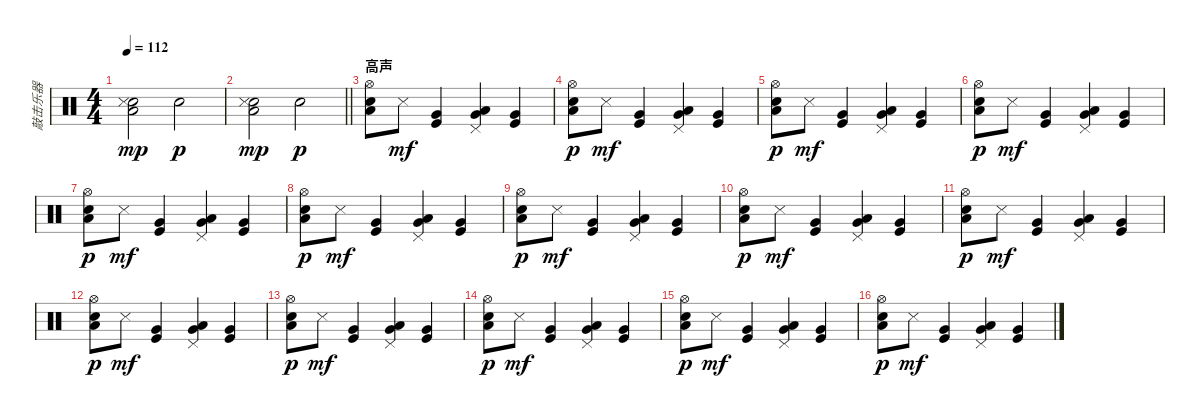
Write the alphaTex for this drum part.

\track ("敲击乐器" "敲击乐器") {instrument percussion}
\staff {score}
\articulation defaults
\ts (4 4)
\tempo 112
\clef neutral
\ks c
("Snare (hit) 2" "Snare (side stick) 3" "Low Floor Tom (hit)").2{dy mp} "Electric Snare (hit)".2{dy p} |
\barLineRight lightlight
("Snare (hit) 2" "Snare (side stick) 3" "Low Floor Tom (hit)").2{dy mp} "Electric Snare (hit)".2{dy p} |
\section ("" "高声")
("Low Floor Tom (hit)" "Snare (hit) 2" "Hi-Hat (open)").8 "Metronome (hit)".8{dy mf} ("Kick (hit)" "Very Low Tom (hit)").4 ("Very Low Tom (hit)" "Pedal Hi-Hat (hit)" "Low Tom (hit)").4 ("Kick (hit)" "Very Low Tom (hit)").4 |
("Low Floor Tom (hit)" "Snare (hit) 2" "Hi-Hat (open)").8{dy p} "Metronome (hit)".8{dy mf} ("Kick (hit)" "Very Low Tom (hit)").4 ("Very Low Tom (hit)" "Pedal Hi-Hat (hit)" "Low Tom (hit)").4 ("Kick (hit)" "Very Low Tom (hit)").4 |
("Low Floor Tom (hit)" "Snare (hit) 2" "Hi-Hat (open)").8{dy p} "Metronome (hit)".8{dy mf} ("Kick (hit)" "Very Low Tom (hit)").4 ("Very Low Tom (hit)" "Pedal Hi-Hat (hit)" "Low Tom (hit)").4 ("Kick (hit)" "Very Low Tom (hit)").4 |
("Low Floor Tom (hit)" "Snare (hit) 2" "Hi-Hat (open)").8{dy p} "Metronome (hit)".8{dy mf} ("Kick (hit)" "Very Low Tom (hit)").4 ("Very Low Tom (hit)" "Pedal Hi-Hat (hit)" "Low Tom (hit)").4 ("Kick (hit)" "Very Low Tom (hit)").4 |
("Low Floor Tom (hit)" "Snare (hit) 2" "Hi-Hat (open)").8{dy p} "Metronome (hit)".8{dy mf} ("Kick (hit)" "Very Low Tom (hit)").4 ("Very Low Tom (hit)" "Pedal Hi-Hat (hit)" "Low Tom (hit)").4 ("Kick (hit)" "Very Low Tom (hit)").4 |
("Low Floor Tom (hit)" "Snare (hit) 2" "Hi-Hat (open)").8{dy p} "Metronome (hit)".8{dy mf} ("Kick (hit)" "Very Low Tom (hit)").4 ("Very Low Tom (hit)" "Pedal Hi-Hat (hit)" "Low Tom (hit)").4 ("Kick (hit)" "Very Low Tom (hit)").4 |
("Low Floor Tom (hit)" "Snare (hit) 2" "Hi-Hat (open)").8{dy p} "Metronome (hit)".8{dy mf} ("Kick (hit)" "Very Low Tom (hit)").4 ("Very Low Tom (hit)" "Pedal Hi-Hat (hit)" "Low Tom (hit)").4 ("Kick (hit)" "Very Low Tom (hit)").4 |
("Low Floor Tom (hit)" "Snare (hit) 2" "Hi-Hat (open)").8{dy p} "Metronome (hit)".8{dy mf} ("Kick (hit)" "Very Low Tom (hit)").4 ("Very Low Tom (hit)" "Pedal Hi-Hat (hit)" "Low Tom (hit)").4 ("Kick (hit)" "Very Low Tom (hit)").4 |
("Low Floor Tom (hit)" "Snare (hit) 2" "Hi-Hat (open)").8{dy p} "Metronome (hit)".8{dy mf} ("Kick (hit)" "Very Low Tom (hit)").4 ("Very Low Tom (hit)" "Pedal Hi-Hat (hit)" "Low Tom (hit)").4 ("Kick (hit)" "Very Low Tom (hit)").4 |
("Low Floor Tom (hit)" "Snare (hit) 2" "Hi-Hat (open)").8{dy p} "Metronome (hit)".8{dy mf} ("Kick (hit)" "Very Low Tom (hit)").4 ("Very Low Tom (hit)" "Pedal Hi-Hat (hit)" "Low Tom (hit)").4 ("Kick (hit)" "Very Low Tom (hit)").4 |
("Low Floor Tom (hit)" "Snare (hit) 2" "Hi-Hat (open)").8{dy p} "Metronome (hit)".8{dy mf} ("Kick (hit)" "Very Low Tom (hit)").4 ("Very Low Tom (hit)" "Pedal Hi-Hat (hit)" "Low Tom (hit)").4 ("Kick (hit)" "Very Low Tom (hit)").4 |
("Low Floor Tom (hit)" "Snare (hit) 2" "Hi-Hat (open)").8{dy p} "Metronome (hit)".8{dy mf} ("Kick (hit)" "Very Low Tom (hit)").4 ("Very Low Tom (hit)" "Pedal Hi-Hat (hit)" "Low Tom (hit)").4 ("Kick (hit)" "Very Low Tom (hit)").4 |
("Low Floor Tom (hit)" "Snare (hit) 2" "Hi-Hat (open)").8{dy p} "Metronome (hit)".8{dy mf} ("Kick (hit)" "Very Low Tom (hit)").4 ("Very Low Tom (hit)" "Pedal Hi-Hat (hit)" "Low Tom (hit)").4 ("Kick (hit)" "Very Low Tom (hit)").4 |
("Low Floor Tom (hit)" "Snare (hit) 2" "Hi-Hat (open)").8{dy p} "Metronome (hit)".8{dy mf} ("Kick (hit)" "Very Low Tom (hit)").4 ("Very Low Tom (hit)" "Pedal Hi-Hat (hit)" "Low Tom (hit)").4 ("Kick (hit)" "Very Low Tom (hit)").4
